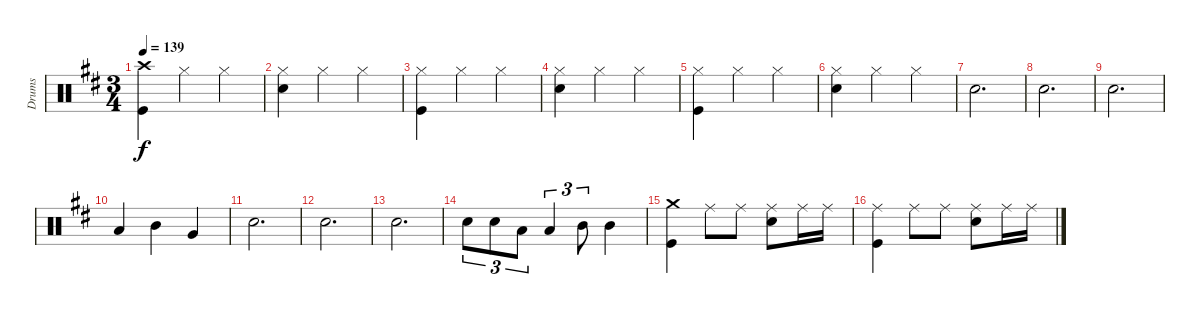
\track ("Drums" "Drums") {instrument percussion}
\staff {score}
\articulation defaults
\ts (3 4)
\tempo 139
\clef neutral
\ks d
("Crash high (hit)" "Kick (hit)").4{dy f} "Hi-Hat (closed)".4 "Hi-Hat (closed)".4 |
("Hi-Hat (closed)" "Snare (hit) 2").4 "Hi-Hat (closed)".4 "Hi-Hat (closed)".4 |
("Hi-Hat (closed)" "Kick (hit)").4 "Hi-Hat (closed)".4 "Hi-Hat (closed)".4 |
("Hi-Hat (closed)" "Snare (hit) 2").4 "Hi-Hat (closed)".4 "Hi-Hat (closed)".4 |
("Hi-Hat (closed)" "Kick (hit)").4 "Hi-Hat (closed)".4 "Hi-Hat (closed)".4 |
("Hi-Hat (closed)" "Snare (hit) 2").4 "Hi-Hat (closed)".4 "Hi-Hat (closed)".4 |
"Snare (hit) 2".2{d} |
"Snare (hit) 2".2{d} |
"Snare (hit) 2".2{d} |
"Low Tom (hit)".4 "Mid Tom (hit)".4 "Very Low Tom (hit)".4 |
"Snare (hit) 2".2{d} |
"Snare (hit) 2".2{d} |
"Snare (hit) 2".2{d} |
"Snare (hit) 2".8{tu (3 2)} "Snare (hit) 2".8{tu (3 2)} "Low Tom (hit)".8{tu (3 2)} "Low Tom (hit)".4{tu (3 2)} "Mid Tom (hit)".8{tu (3 2)} "Mid Tom (hit)".4 |
("Crash medium (hit)" "Kick (hit)").4 "Ride (middle)".8 "Ride (middle)".8 ("Ride (middle)" "Snare (hit) 2").8 "Ride (middle)".16 "Ride (middle)".16 |
("Ride (middle)" "Kick (hit)").4 "Ride (middle)".8 "Ride (middle)".8 ("Ride (middle)" "Snare (hit) 2").8 "Ride (middle)".16 "Ride (middle)".16
